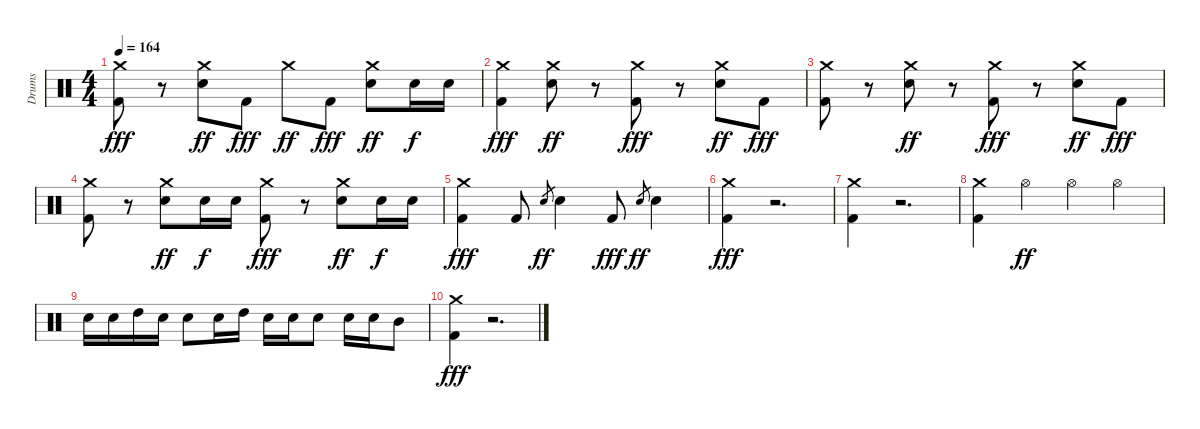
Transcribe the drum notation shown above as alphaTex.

\track ("Drums" "Drums") {instrument percussion}
\staff {score}
\articulation defaults
\ts (4 4)
\tempo 164
\clef neutral
\ks c
("Crash medium (hit)" "Kick (hit) 2").8{dy fff} r.8 ("Crash medium (hit)" "Snare (hit) 2").8{dy ff} "Kick (hit) 2".8{dy fff} "Crash medium (hit)".8{dy ff} "Kick (hit) 2".8{dy fff} ("Crash medium (hit)" "Snare (hit) 2").8{dy ff} "Snare (hit) 2".16{dy f} "Snare (hit) 2".16 |
("Crash medium (hit)" "Kick (hit) 2").4{dy fff} ("Crash medium (hit)" "Snare (hit) 2").8{dy ff} r.8 ("Crash medium (hit)" "Kick (hit) 2").8{dy fff} r.8 ("Crash medium (hit)" "Snare (hit) 2").8{dy ff} "Kick (hit) 2".8{dy fff} |
("Crash medium (hit)" "Kick (hit) 2").8 r.8 ("Crash medium (hit)" "Snare (hit) 2").8{dy ff} r.8 ("Crash medium (hit)" "Kick (hit) 2").8{dy fff} r.8 ("Crash medium (hit)" "Snare (hit) 2").8{dy ff} "Kick (hit) 2".8{dy fff} |
("Crash medium (hit)" "Kick (hit) 2").8 r.8 ("Crash medium (hit)" "Snare (hit) 2").8{dy ff} "Snare (hit) 2".16{dy f} "Snare (hit) 2".16 ("Crash medium (hit)" "Kick (hit) 2").8{dy fff} r.8 ("Crash medium (hit)" "Snare (hit) 2").8{dy ff} "Snare (hit) 2".16{dy f} "Snare (hit) 2".16 |
("Crash medium (hit)" "Kick (hit) 2").4{dy fff} "Kick (hit) 2".8 "Snare (hit) 2".8{gr dy ff} "Snare (hit) 2".4 "Kick (hit) 2".8{dy fff} "Snare (hit) 2".8{gr dy ff} "Snare (hit) 2".4 |
("Crash medium (hit)" "Kick (hit) 2").4{dy fff} r.2{d} |
("Crash medium (hit)" "Kick (hit) 2").4 r.2{d} |
("Crash medium (hit)" "Kick (hit) 2").4 "Hi-Hat (open)".4{dy ff} "Hi-Hat (open)".4 "Hi-Hat (open)".4 |
"Snare (hit) 2".16 "Snare (hit) 2".16 "High Tom (hit)".16 "Snare (hit) 2".16 "Snare (hit) 2".8 "Snare (hit) 2".16 "High Tom (hit)".16 "Snare (hit) 2".16 "Snare (hit) 2".16 "Snare (hit) 2".8 "Snare (hit) 2".16 "Snare (hit) 2".16 "Mid Tom (hit)".8 |
("Crash medium (hit)" "Kick (hit) 2").4{dy fff} r.2{d}
